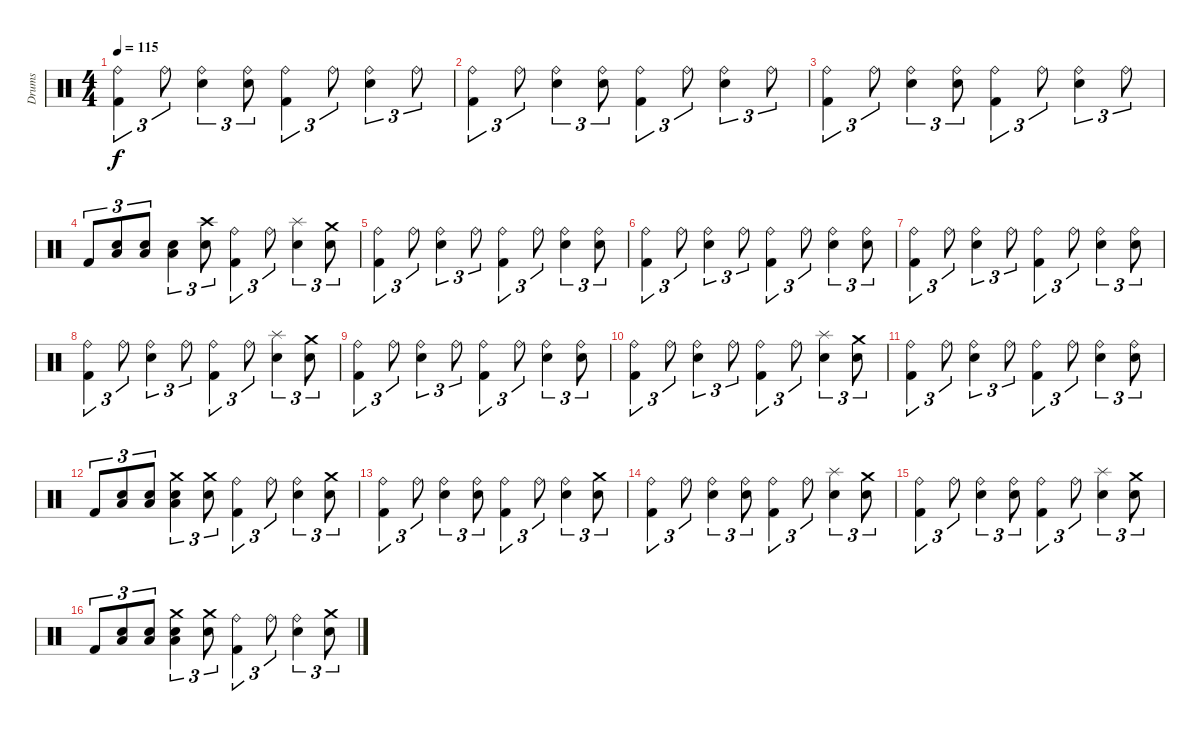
\track ("Drums" "Drums") {instrument percussion}
\staff {score}
\articulation defaults
\ts (4 4)
\tempo 115
\clef neutral
\ks c
("Ride (bell)" "Kick (hit) 2").4{tu (3 2) dy f} "Ride (bell)".8{tu (3 2)} ("Ride (bell)" "Electric Snare (hit)").4{tu (3 2)} ("Ride (bell)" "Electric Snare (hit)").8{tu (3 2)} ("Ride (bell)" "Kick (hit) 2").4{tu (3 2)} "Ride (bell)".8{tu (3 2)} ("Ride (bell)" "Electric Snare (hit)").4{tu (3 2)} "Ride (bell)".8{tu (3 2)} |
("Ride (bell)" "Kick (hit) 2").4{tu (3 2)} "Ride (bell)".8{tu (3 2)} ("Ride (bell)" "Electric Snare (hit)").4{tu (3 2)} ("Ride (bell)" "Electric Snare (hit)").8{tu (3 2)} ("Ride (bell)" "Kick (hit) 2").4{tu (3 2)} "Ride (bell)".8{tu (3 2)} ("Ride (bell)" "Electric Snare (hit)").4{tu (3 2)} "Ride (bell)".8{tu (3 2)} |
("Ride (bell)" "Kick (hit) 2").4{tu (3 2)} "Ride (bell)".8{tu (3 2)} ("Ride (bell)" "Electric Snare (hit)").4{tu (3 2)} ("Ride (bell)" "Electric Snare (hit)").8{tu (3 2)} ("Ride (bell)" "Kick (hit) 2").4{tu (3 2)} "Ride (bell)".8{tu (3 2)} ("Ride (bell)" "Electric Snare (hit)").4{tu (3 2)} "Ride (bell)".8{tu (3 2)} |
"Kick (hit) 2".8{tu (3 2) volume 14} ("Low Tom (hit)" "Electric Snare (hit)").8{tu (3 2)} ("Low Tom (hit)" "Electric Snare (hit)").8{tu (3 2)} ("Low Floor Tom (hit)" "Electric Snare (hit)").4{tu (3 2)} ("Crash high (hit)" "Electric Snare (hit)").8{tu (3 2)} ("Ride (bell)" "Kick (hit) 2").4{tu (3 2)} "Ride (bell)".8{tu (3 2)} ("Splash (hit)" "Electric Snare (hit)").4{tu (3 2)} ("Crash medium (hit)" "Electric Snare (hit)").8{tu (3 2)} |
("Ride (bell)" "Kick (hit) 2").4{tu (3 2)} "Ride (bell)".8{tu (3 2)} ("Ride (bell)" "Electric Snare (hit)").4{tu (3 2)} "Ride (bell)".8{tu (3 2)} ("Ride (bell)" "Kick (hit) 2").4{tu (3 2)} "Ride (bell)".8{tu (3 2)} ("Ride (bell)" "Electric Snare (hit)").4{tu (3 2)} ("Ride (bell)" "Electric Snare (hit)").8{tu (3 2)} |
("Ride (bell)" "Kick (hit) 2").4{tu (3 2)} "Ride (bell)".8{tu (3 2)} ("Ride (bell)" "Electric Snare (hit)").4{tu (3 2)} "Ride (bell)".8{tu (3 2)} ("Ride (bell)" "Kick (hit) 2").4{tu (3 2)} "Ride (bell)".8{tu (3 2)} ("Ride (bell)" "Electric Snare (hit)").4{tu (3 2)} ("Ride (bell)" "Electric Snare (hit)").8{tu (3 2)} |
("Ride (bell)" "Kick (hit) 2").4{tu (3 2) volume 11} "Ride (bell)".8{tu (3 2)} ("Ride (bell)" "Electric Snare (hit)").4{tu (3 2)} "Ride (bell)".8{tu (3 2)} ("Ride (bell)" "Kick (hit) 2").4{tu (3 2)} "Ride (bell)".8{tu (3 2)} ("Ride (bell)" "Electric Snare (hit)").4{tu (3 2)} ("Ride (bell)" "Electric Snare (hit)").8{tu (3 2)} |
("Ride (bell)" "Kick (hit) 2").4{tu (3 2)} "Ride (bell)".8{tu (3 2)} ("Ride (bell)" "Electric Snare (hit)").4{tu (3 2)} "Ride (bell)".8{tu (3 2)} ("Ride (bell)" "Kick (hit) 2").4{tu (3 2)} "Ride (bell)".8{tu (3 2)} ("Splash (hit)" "Electric Snare (hit)").4{tu (3 2)} ("Crash medium (hit)" "Electric Snare (hit)").8{tu (3 2)} |
("Ride (bell)" "Kick (hit) 2").4{tu (3 2)} "Ride (bell)".8{tu (3 2)} ("Ride (bell)" "Electric Snare (hit)").4{tu (3 2)} "Ride (bell)".8{tu (3 2)} ("Ride (bell)" "Kick (hit) 2").4{tu (3 2)} "Ride (bell)".8{tu (3 2)} ("Ride (bell)" "Electric Snare (hit)").4{tu (3 2)} ("Ride (bell)" "Electric Snare (hit)").8{tu (3 2)} |
("Ride (bell)" "Kick (hit) 2").4{tu (3 2) volume 9} "Ride (bell)".8{tu (3 2)} ("Ride (bell)" "Electric Snare (hit)").4{tu (3 2)} "Ride (bell)".8{tu (3 2)} ("Ride (bell)" "Kick (hit) 2").4{tu (3 2)} "Ride (bell)".8{tu (3 2)} ("Splash (hit)" "Electric Snare (hit)").4{tu (3 2)} ("Crash medium (hit)" "Electric Snare (hit)").8{tu (3 2)} |
("Ride (bell)" "Kick (hit) 2").4{tu (3 2)} "Ride (bell)".8{tu (3 2)} ("Ride (bell)" "Electric Snare (hit)").4{tu (3 2)} "Ride (bell)".8{tu (3 2)} ("Ride (bell)" "Kick (hit) 2").4{tu (3 2)} "Ride (bell)".8{tu (3 2)} ("Ride (bell)" "Electric Snare (hit)").4{tu (3 2)} ("Ride (bell)" "Electric Snare (hit)").8{tu (3 2)} |
"Kick (hit) 2".8{tu (3 2)} ("Low Floor Tom (hit)" "Electric Snare (hit)").8{tu (3 2)} ("Low Floor Tom (hit)" "Electric Snare (hit)").8{tu (3 2)} ("Crash medium (hit)" "Low Floor Tom (hit)" "Electric Snare (hit)").4{tu (3 2)} ("Crash medium (hit)" "Electric Snare (hit)").8{tu (3 2)} ("Ride (bell)" "Kick (hit) 2").4{tu (3 2)} "Ride (bell)".8{tu (3 2)} ("Ride (bell)" "Electric Snare (hit)").4{tu (3 2)} ("Crash medium (hit)" "Electric Snare (hit)").8{tu (3 2)} |
("Ride (bell)" "Kick (hit) 2").4{tu (3 2) volume 7} "Ride (bell)".8{tu (3 2)} ("Ride (bell)" "Electric Snare (hit)").4{tu (3 2)} ("Ride (bell)" "Electric Snare (hit)").8{tu (3 2)} ("Ride (bell)" "Kick (hit) 2").4{tu (3 2)} "Ride (bell)".8{tu (3 2)} ("Ride (bell)" "Electric Snare (hit)").4{tu (3 2)} ("Crash medium (hit)" "Electric Snare (hit)").8{tu (3 2)} |
("Ride (bell)" "Kick (hit) 2").4{tu (3 2)} "Ride (bell)".8{tu (3 2)} ("Ride (bell)" "Electric Snare (hit)").4{tu (3 2)} ("Ride (bell)" "Electric Snare (hit)").8{tu (3 2)} ("Ride (bell)" "Kick (hit) 2").4{tu (3 2)} "Ride (bell)".8{tu (3 2)} ("Splash (hit)" "Electric Snare (hit)").4{tu (3 2)} ("Crash medium (hit)" "Electric Snare (hit)").8{tu (3 2)} |
("Ride (bell)" "Kick (hit) 2").4{tu (3 2)} "Ride (bell)".8{tu (3 2)} ("Ride (bell)" "Electric Snare (hit)").4{tu (3 2)} ("Ride (bell)" "Electric Snare (hit)").8{tu (3 2)} ("Ride (bell)" "Kick (hit) 2").4{tu (3 2)} "Ride (bell)".8{tu (3 2)} ("Splash (hit)" "Electric Snare (hit)").4{tu (3 2)} ("Crash medium (hit)" "Electric Snare (hit)").8{tu (3 2)} |
"Kick (hit) 2".8{tu (3 2) volume 5} ("Low Floor Tom (hit)" "Electric Snare (hit)").8{tu (3 2)} ("Low Floor Tom (hit)" "Electric Snare (hit)").8{tu (3 2)} ("Crash medium (hit)" "Low Floor Tom (hit)" "Electric Snare (hit)").4{tu (3 2)} ("Crash medium (hit)" "Electric Snare (hit)").8{tu (3 2)} ("Ride (bell)" "Kick (hit) 2").4{tu (3 2)} "Ride (bell)".8{tu (3 2)} ("Ride (bell)" "Electric Snare (hit)").4{tu (3 2)} ("Crash medium (hit)" "Electric Snare (hit)").8{tu (3 2)}
